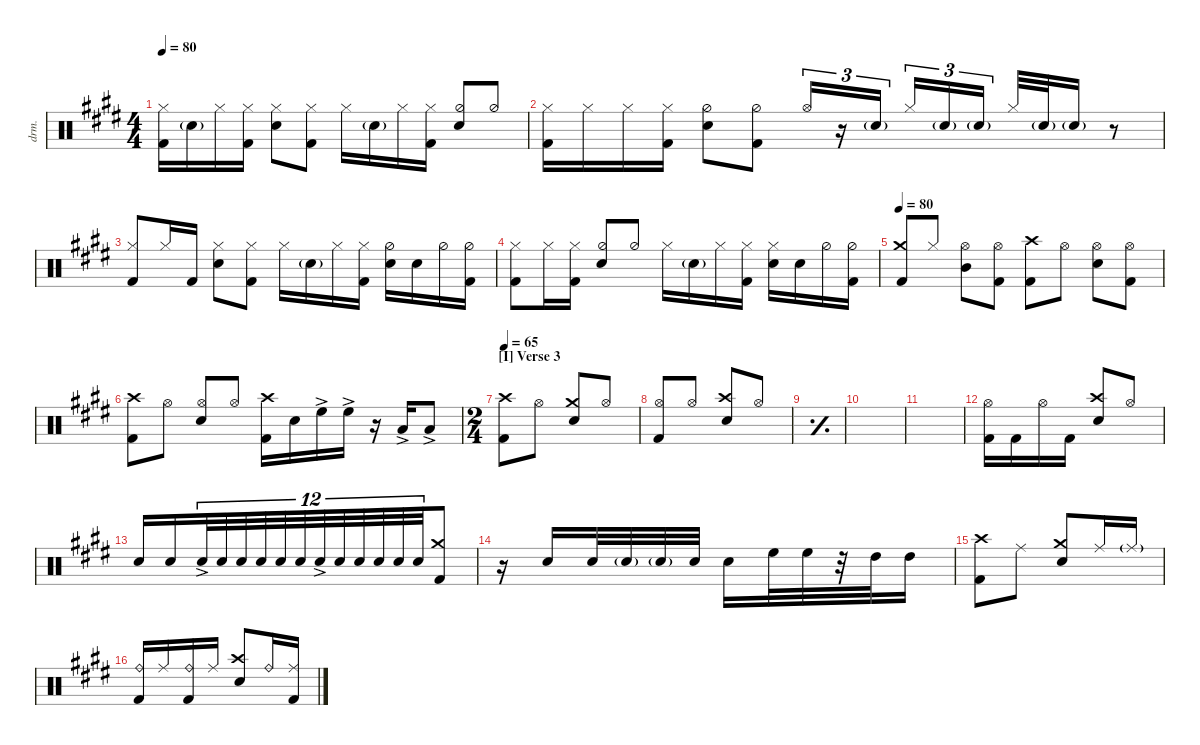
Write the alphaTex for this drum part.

\defaultSystemsLayout 4
\hideDynamics
\bracketExtendMode groupsimilarinstruments
\otherSystemsTrackNameOrientation horizontal
\chordDiagramsInScore
\track ("Drumkit" "drm.") {instrument percussion}
\staff {score}
\articulation defaults
\ts (4 4)
\tempo 80
\clef neutral
\scale
1.03469
\ks e
("Hi-Hat (closed)"{acc forcenatural} "Kick (hit) 2"{acc forcenatural}).16{dy mf} "Snare (hit) 2"{g acc forcenatural}.16 "Hi-Hat (closed)"{acc forcenatural}.16 ("Hi-Hat (closed)"{acc forcenatural} "Kick (hit) 2"{acc forcenatural}).16 ("Snare (hit) 2"{acc forcenatural} "Hi-Hat (closed)"{acc forcenatural}).8 ("Hi-Hat (closed)"{acc forcenatural} "Kick (hit) 2"{acc forcenatural}).8 "Hi-Hat (closed)"{acc forcenatural}.16 "Snare (hit) 2"{g acc forcenatural}.16 "Hi-Hat (closed)"{acc forcenatural}.16 ("Hi-Hat (closed)"{acc forcenatural} "Kick (hit) 2"{acc forcenatural}).16 ("Hi-Hat (half)"{acc forcenatural} "Snare (hit) 2"{acc forcenatural}).8{beam Up} "Hi-Hat (half)"{acc forcenatural}.8{beam Up} |
\scale
0.965309 ("Hi-Hat (closed)"{acc forcenatural} "Kick (hit) 2"{acc forcenatural}).16 "Hi-Hat (closed)"{acc forcenatural}.16 "Hi-Hat (closed)"{acc forcenatural}.16 ("Hi-Hat (closed)"{acc forcenatural} "Kick (hit) 2"{acc forcenatural}).16 ("Snare (hit) 2"{acc forcenatural} "Hi-Hat (half)"{acc forcenatural}).8 ("Hi-Hat (half)"{acc forcenatural} "Kick (hit) 2"{acc forcenatural}).8 "Hi-Hat (open)"{acc forcenatural}.16{tu (3 2) beam Up} r.16{tu (3 2) beam Up} "Snare (hit) 2"{g acc forcenatural}.16{tu (3 2) beam Up} "Hi-Hat (closed)"{acc forcenatural}.16{tu (3 2) beam Up} "Snare (hit) 2"{g acc forcenatural}.16{tu (3 2) beam Up} "Snare (hit) 2"{g acc forcenatural}.16{tu (3 2) beam Up} "Hi-Hat (closed)"{acc forcenatural}.32{beam Up} "Snare (hit) 2"{g acc forcenatural}.32{beam Up} "Snare (hit) 2"{g acc forcenatural}.16{beam Up} r.8 |
("Hi-Hat (closed)"{acc forcenatural} "Kick (hit) 2"{acc forcenatural}).8{beam Up} "Hi-Hat (closed)"{acc forcenatural}.16{beam Up} "Kick (hit) 2"{acc forcenatural}.16{beam Up} ("Snare (hit) 2"{acc forcenatural} "Hi-Hat (closed)"{acc forcenatural}).8 ("Hi-Hat (closed)"{acc forcenatural} "Kick (hit) 2"{acc forcenatural}).8 "Hi-Hat (closed)"{acc forcenatural}.16 "Snare (hit) 2"{g acc forcenatural}.16 "Hi-Hat (closed)"{acc forcenatural}.16 ("Hi-Hat (closed)"{acc forcenatural} "Kick (hit) 2"{acc forcenatural}).16 ("Hi-Hat (half)"{acc forcenatural} "Snare (hit) 2"{acc forcenatural}).16 "Snare (hit) 2"{acc forcenatural}.16 "Hi-Hat (half)"{acc forcenatural}.16 ("Hi-Hat (half)"{acc forcenatural} "Kick (hit) 2"{acc forcenatural}).16 |
("Kick (hit) 2"{acc forcenatural} "Hi-Hat (closed)"{acc forcenatural}).8 "Hi-Hat (closed)"{acc forcenatural}.16 ("Hi-Hat (closed)"{acc forcenatural} "Kick (hit) 2"{acc forcenatural}).16 ("Snare (hit) 2"{acc forcenatural} "Hi-Hat (half)"{acc forcenatural}).8{beam Up} "Hi-Hat (half)"{acc forcenatural}.8{beam Up} "Hi-Hat (closed)"{acc forcenatural}.16 "Snare (hit) 2"{g acc forcenatural}.16 "Hi-Hat (closed)"{acc forcenatural}.16 ("Hi-Hat (closed)"{acc forcenatural} "Kick (hit) 2"{acc forcenatural}).16 ("Hi-Hat (closed)"{acc forcenatural} "Snare (hit) 2"{acc forcenatural}).16 "Snare (hit) 2"{acc forcenatural}.16 "Hi-Hat (half)"{acc forcenatural}.16 ("Hi-Hat (half)"{acc forcenatural} "Kick (hit) 2"{acc forcenatural}).16 |
\tempo 80
\scale
1.02619 ("Kick (hit) 2"{acc forcenatural} "Crash medium (hit)"{acc forcenatural}).8{beam Up} "Hi-Hat (closed)"{acc forcenatural}.8{beam Up} ("Hi-Hat (open)"{acc forcenatural} "Mid Tom (hit)"{acc forcenatural}).8 ("Hi-Hat (open)"{acc forcenatural} "Kick (hit) 2"{acc forcenatural}).8 ("Crash high (hit)"{acc forcenatural} "Kick (hit) 2"{acc forcenatural}).8 "Hi-Hat (open)"{acc forcenatural}.8 ("Hi-Hat (open)"{acc forcenatural} "Snare (hit) 2"{acc forcenatural}).8 ("Hi-Hat (open)"{acc forcenatural} "Kick (hit) 2"{acc forcenatural}).8 |
\scale
0.97381 ("Crash high (hit)"{acc forcenatural} "Kick (hit) 2"{acc forcenatural}).8 "Hi-Hat (open)"{acc forcenatural}.8 ("Hi-Hat (open)"{acc forcenatural} "Snare (hit) 2"{acc forcenatural}).8{beam Up} "Hi-Hat (open)"{acc forcenatural}.8{beam Up} ("Crash high (hit)"{acc forcenatural} "Kick (hit) 2"{acc forcenatural}).16 "Snare (hit) 2"{acc forcenatural}.16 "High Floor Tom (hit)"{ac acc forcenatural}.16 "High Floor Tom (hit)"{ac acc forcenatural}.16 r.16 "Low Tom (hit)"{ac acc forcenatural}.16 "Low Tom (hit)"{ac acc forcenatural}.8 |
\ts (2 4)
\beaming (8 2 2)
\section ("I" "Verse 3")
\tempo 65
\scale
1.54137 ("Kick (hit) 2"{acc forcenatural} "Crash high (hit)"{acc forcenatural}).8 "Hi-Hat (open)"{acc forcenatural}.8 ("Crash medium (hit)"{acc forcenatural} "Snare (hit) 2"{acc forcenatural}).8{beam Up} "Hi-Hat (open)"{acc forcenatural}.8{beam Up} |
\scale
1.13318 ("Hi-Hat (open)"{acc forcenatural} "Kick (hit) 2"{acc forcenatural}).8{beam Up} "Hi-Hat (open)"{acc forcenatural}.8{beam Up} ("Crash high (hit)"{acc forcenatural} "Snare (hit) 2"{acc forcenatural}).8{beam Up} "Hi-Hat (open)"{acc forcenatural}.8{beam Up} |
\simile simple
\scale
0.666875 |
\scale
0.658584 |
\scale
0.741396 |
\simile none
\scale
0.953465 ("Hi-Hat (open)"{acc forcenatural} "Kick (hit) 2"{acc forcenatural}).16{beam Down} "Kick (hit) 2"{acc forcenatural}.16{beam Down} "Hi-Hat (open)"{acc forcenatural}.16{beam Down} "Kick (hit) 2"{acc forcenatural}.16{beam Down} ("Crash high (hit)"{acc forcenatural} "Snare (hit) 2"{acc forcenatural}).8{beam Up} "Hi-Hat (open)"{acc forcenatural}.8{beam Up} |
\scale
1.26767 "Snare (hit) 2"{acc forcenatural}.16{beam Up} "Snare (hit) 2"{acc forcenatural}.16{beam Up beam merge} "Snare (hit) 2"{ac acc forcenatural}.32{tu (12 8) beam Up} "Snare (hit) 2"{acc forcenatural}.32{tu (12 8) beam Up} "Snare (hit) 2"{acc forcenatural}.32{tu (12 8) beam Up} "Snare (hit) 2"{acc forcenatural}.32{tu (12 8) beam Up} "Snare (hit) 2"{acc forcenatural}.32{tu (12 8) beam Up} "Snare (hit) 2"{acc forcenatural}.32{tu (12 8) beam Up} "Snare (hit) 2"{ac acc forcenatural}.32{tu (12 8) beam Up} "Snare (hit) 2"{acc forcenatural}.32{tu (12 8) beam Up} "Snare (hit) 2"{acc forcenatural}.32{tu (12 8) beam Up} "Snare (hit) 2"{acc forcenatural}.32{tu (12 8) beam Up} "Snare (hit) 2"{acc forcenatural}.32{tu (12 8) beam Up} "Snare (hit) 2"{acc forcenatural}.32{tu (12 8) beam Up beam merge} ("Crash medium (hit)"{acc forcenatural} "Kick (hit) 2"{acc forcenatural}).8{beam Up} |
\scale
1.03747 r.16 "Snare (hit) 2"{acc forcenatural}.16{beam Up} "Snare (hit) 2"{acc forcenatural}.32{beam Up} "Snare (hit) 2"{g acc forcenatural}.32{beam Up} "Snare (hit) 2"{g acc forcenatural}.32{beam Up} "Snare (hit) 2"{acc forcenatural}.32{beam Up} "Snare (hit) 2"{acc forcenatural}.16 "High Floor Tom (hit)"{acc forcenatural}.32 "High Floor Tom (hit)"{acc forcenatural}.32 r.32 "High Tom (hit)"{acc forcenatural}.32 "High Tom (hit)"{acc forcenatural}.16 |
("Crash high (hit)"{acc forcenatural} "Kick (hit) 2"{acc forcenatural}).8 "Ride (middle)"{acc forcenatural}.8 ("Crash medium (hit)"{acc forcenatural} "Snare (hit) 2"{acc forcenatural}).8{beam Up} "Ride (middle)"{acc forcenatural}.16{beam Up} "Ride (middle)"{g acc forcenatural}.16{beam Up} |
("Ride (bell)"{acc forcenatural} "Kick (hit) 2"{acc forcenatural}).16{beam Up} "Ride (middle)"{acc forcenatural}.16{beam Up} ("Ride (bell)"{acc forcenatural} "Kick (hit) 2"{acc forcenatural}).16{beam Up} "Ride (middle)"{acc forcenatural}.16{beam Up} ("Crash high (hit)"{acc forcenatural} "Snare (hit) 2"{acc forcenatural}).8{beam Up} "Ride (bell)"{acc forcenatural}.16{beam Up} ("Kick (hit) 2"{acc forcenatural} "Ride (middle)"{acc forcenatural}).16{beam Up}
